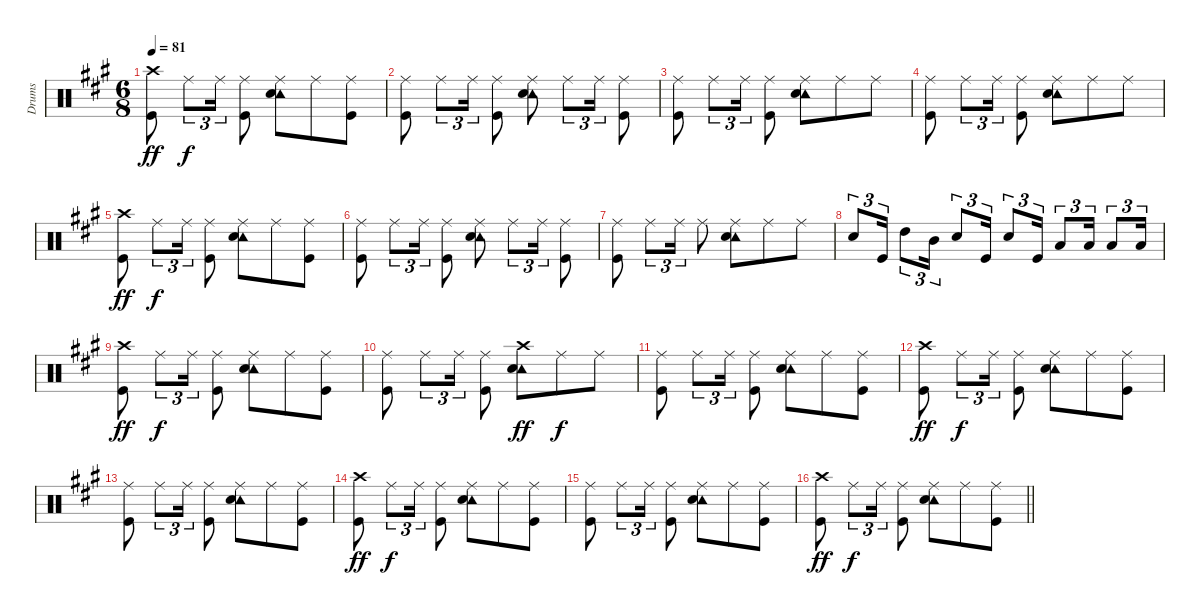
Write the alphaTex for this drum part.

\track ("Drums" "Drums") {instrument percussion}
\staff {score}
\articulation defaults
\ts (6 8)
\tempo 81
\clef neutral
\ks a
("Crash high (hit)" "Kick (hit)").8{dy ff} "Ride (middle)".8{tu (3 2) dy f} "Ride (middle)".16{tu (3 2)} ("Ride (middle)" "Kick (hit)").8 ("Ride (middle)" "Tambourine (hit)" "Snare (hit) 2").8 "Ride (middle)".8 ("Ride (middle)" "Kick (hit)").8 |
("Ride (middle)" "Kick (hit)").8 "Ride (middle)".8{tu (3 2)} "Ride (middle)".16{tu (3 2)} ("Ride (middle)" "Kick (hit)").8 ("Ride (middle)" "Tambourine (hit)" "Snare (hit) 2").8 "Ride (middle)".8{tu (3 2)} "Ride (middle)".16{tu (3 2)} ("Ride (middle)" "Kick (hit)").8 |
("Ride (middle)" "Kick (hit)").8 "Ride (middle)".8{tu (3 2)} "Ride (middle)".16{tu (3 2)} ("Ride (middle)" "Kick (hit)").8 ("Ride (middle)" "Tambourine (hit)" "Snare (hit) 2").8 "Ride (middle)".8 "Ride (middle)".8 |
("Ride (middle)" "Kick (hit)").8 "Ride (middle)".8{tu (3 2)} "Ride (middle)".16{tu (3 2)} ("Ride (middle)" "Kick (hit)").8 ("Ride (middle)" "Tambourine (hit)" "Snare (hit) 2").8 "Ride (middle)".8 "Ride (middle)".8 |
("Crash high (hit)" "Kick (hit)").8{dy ff} "Ride (middle)".8{tu (3 2) dy f} "Ride (middle)".16{tu (3 2)} ("Ride (middle)" "Kick (hit)").8 ("Ride (middle)" "Tambourine (hit)" "Snare (hit) 2").8 "Ride (middle)".8 ("Ride (middle)" "Kick (hit)").8 |
("Ride (middle)" "Kick (hit)").8 "Ride (middle)".8{tu (3 2)} "Ride (middle)".16{tu (3 2)} ("Ride (middle)" "Kick (hit)").8 ("Ride (middle)" "Tambourine (hit)" "Snare (hit) 2").8 "Ride (middle)".8{tu (3 2)} "Ride (middle)".16{tu (3 2)} ("Ride (middle)" "Kick (hit)").8 |
("Ride (middle)" "Kick (hit)").8 "Ride (middle)".8{tu (3 2)} "Ride (middle)".16{tu (3 2)} "Ride (middle)".8 ("Ride (middle)" "Tambourine (hit)" "Snare (hit) 2").8 "Ride (middle)".8 "Ride (middle)".8 |
"Snare (hit) 2".8{tu (3 2)} "Kick (hit)".16{tu (3 2)} "High Tom (hit)".8{tu (3 2)} "Mid Tom (hit)".16{tu (3 2)} "Snare (hit) 2".8{tu (3 2)} "Kick (hit)".16{tu (3 2)} "Snare (hit) 2".8{tu (3 2)} "Kick (hit)".16{tu (3 2)} "Low Tom (hit)".8{tu (3 2)} "Low Tom (hit)".16{tu (3 2)} "Low Tom (hit)".8{tu (3 2)} "Low Tom (hit)".16{tu (3 2)} |
("Crash high (hit)" "Kick (hit)").8{dy ff} "Ride (middle)".8{tu (3 2) dy f} "Ride (middle)".16{tu (3 2)} ("Ride (middle)" "Kick (hit)").8 ("Ride (middle)" "Tambourine (hit)" "Snare (hit) 2").8 "Ride (middle)".8 ("Ride (middle)" "Kick (hit)").8 |
("Ride (middle)" "Kick (hit)").8 "Ride (middle)".8{tu (3 2)} "Ride (middle)".16{tu (3 2)} ("Ride (middle)" "Kick (hit)").8 ("Crash high (hit)" "Tambourine (hit)" "Snare (hit) 2").8{dy ff} "Ride (middle)".8{dy f} "Ride (middle)".8 |
("Ride (middle)" "Kick (hit)").8 "Ride (middle)".8{tu (3 2)} "Ride (middle)".16{tu (3 2)} ("Ride (middle)" "Kick (hit)").8 ("Ride (middle)" "Tambourine (hit)" "Snare (hit) 2").8 "Ride (middle)".8 ("Ride (middle)" "Kick (hit)").8 |
("Crash high (hit)" "Kick (hit)").8{dy ff} "Ride (middle)".8{tu (3 2) dy f} "Ride (middle)".16{tu (3 2)} ("Ride (middle)" "Kick (hit)").8 ("Ride (middle)" "Tambourine (hit)" "Snare (hit) 2").8 "Ride (middle)".8 ("Ride (middle)" "Kick (hit)").8 |
("Ride (middle)" "Kick (hit)").8 "Ride (middle)".8{tu (3 2)} "Ride (middle)".16{tu (3 2)} ("Ride (middle)" "Kick (hit)").8 ("Ride (middle)" "Tambourine (hit)" "Snare (hit) 2").8 "Ride (middle)".8 ("Ride (middle)" "Kick (hit)").8 |
("Crash high (hit)" "Kick (hit)").8{dy ff} "Ride (middle)".8{tu (3 2) dy f} "Ride (middle)".16{tu (3 2)} ("Ride (middle)" "Kick (hit)").8 ("Ride (middle)" "Tambourine (hit)" "Snare (hit) 2").8 "Ride (middle)".8 ("Ride (middle)" "Kick (hit)").8 |
("Ride (middle)" "Kick (hit)").8 "Ride (middle)".8{tu (3 2)} "Ride (middle)".16{tu (3 2)} ("Ride (middle)" "Kick (hit)").8 ("Ride (middle)" "Tambourine (hit)" "Snare (hit) 2").8 "Ride (middle)".8 ("Ride (middle)" "Kick (hit)").8 |
\barLineRight lightlight
("Crash high (hit)" "Kick (hit)").8{dy ff} "Ride (middle)".8{tu (3 2) dy f} "Ride (middle)".16{tu (3 2)} ("Ride (middle)" "Kick (hit)").8 ("Ride (middle)" "Tambourine (hit)" "Snare (hit) 2").8 "Ride (middle)".8 ("Ride (middle)" "Kick (hit)").8
